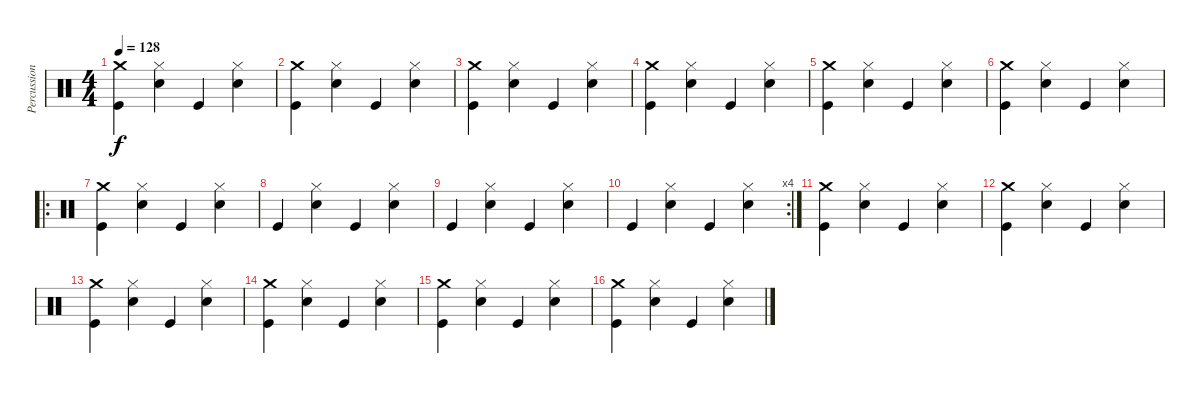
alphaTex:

\track ("Percussion" "Percussion") {instrument percussion}
\staff {score}
\articulation defaults
\ts (4 4)
\tempo 128
\clef neutral
\ks c
("Crash medium (hit)" "Kick (hit)").4{dy f} ("Snare (hit) 2" "Hi-Hat (closed)").4 "Kick (hit)".4 ("Snare (hit) 2" "Hi-Hat (closed)").4 |
("Crash medium (hit)" "Kick (hit)").4 ("Snare (hit) 2" "Hi-Hat (closed)").4 "Kick (hit)".4 ("Snare (hit) 2" "Hi-Hat (closed)").4 |
("Crash medium (hit)" "Kick (hit)").4 ("Snare (hit) 2" "Hi-Hat (closed)").4 "Kick (hit)".4 ("Snare (hit) 2" "Hi-Hat (closed)").4 |
("Crash medium (hit)" "Kick (hit)").4 ("Snare (hit) 2" "Hi-Hat (closed)").4 "Kick (hit)".4 ("Snare (hit) 2" "Hi-Hat (closed)").4 |
("Crash medium (hit)" "Kick (hit)").4 ("Snare (hit) 2" "Hi-Hat (closed)").4 "Kick (hit)".4 ("Snare (hit) 2" "Hi-Hat (closed)").4 |
("Crash medium (hit)" "Kick (hit)").4 ("Snare (hit) 2" "Hi-Hat (closed)").4 "Kick (hit)".4 ("Snare (hit) 2" "Hi-Hat (closed)").4 |
\ro
("Crash medium (hit)" "Kick (hit)").4 ("Snare (hit) 2" "Hi-Hat (closed)").4 "Kick (hit)".4 ("Snare (hit) 2" "Hi-Hat (closed)").4 |
"Kick (hit)".4 ("Snare (hit) 2" "Hi-Hat (closed)").4 "Kick (hit)".4 ("Snare (hit) 2" "Hi-Hat (closed)").4 |
"Kick (hit)".4 ("Snare (hit) 2" "Hi-Hat (closed)").4 "Kick (hit)".4 ("Snare (hit) 2" "Hi-Hat (closed)").4 |
\rc 4 "Kick (hit)".4
("Snare (hit) 2" "Hi-Hat (closed)").4 "Kick (hit)".4 ("Snare (hit) 2" "Hi-Hat (closed)").4 |
("Crash medium (hit)" "Kick (hit)").4 ("Snare (hit) 2" "Hi-Hat (closed)").4 "Kick (hit)".4 ("Snare (hit) 2" "Hi-Hat (closed)").4 |
("Crash medium (hit)" "Kick (hit)").4 ("Snare (hit) 2" "Hi-Hat (closed)").4 "Kick (hit)".4 ("Snare (hit) 2" "Hi-Hat (closed)").4 |
("Crash medium (hit)" "Kick (hit)").4 ("Snare (hit) 2" "Hi-Hat (closed)").4 "Kick (hit)".4 ("Snare (hit) 2" "Hi-Hat (closed)").4 |
("Crash medium (hit)" "Kick (hit)").4 ("Snare (hit) 2" "Hi-Hat (closed)").4 "Kick (hit)".4 ("Snare (hit) 2" "Hi-Hat (closed)").4 |
("Crash medium (hit)" "Kick (hit)").4 ("Snare (hit) 2" "Hi-Hat (closed)").4 "Kick (hit)".4 ("Snare (hit) 2" "Hi-Hat (closed)").4 |
("Crash medium (hit)" "Kick (hit)").4 ("Snare (hit) 2" "Hi-Hat (closed)").4 "Kick (hit)".4 ("Snare (hit) 2" "Hi-Hat (closed)").4
